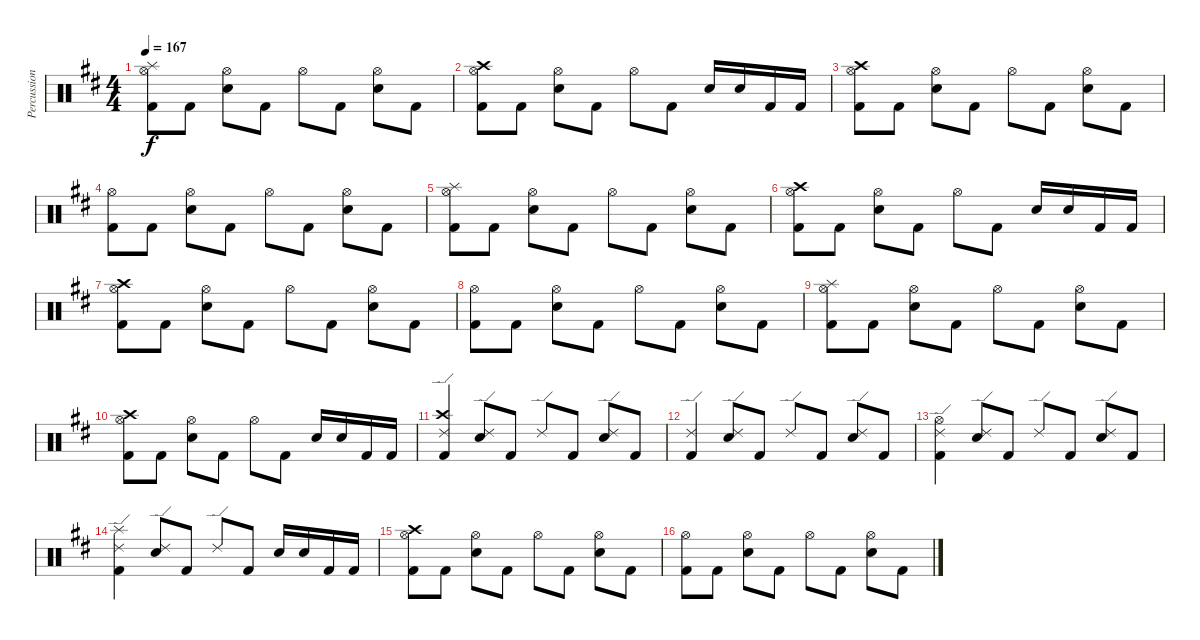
\track ("Percussion" "Percussion") {instrument percussion}
\staff {score}
\articulation defaults
\ts (4 4)
\tempo 167
\clef neutral
\ks d
("Hi-Hat (open)" "Splash (hit)" "Kick (hit) 2").8{dy f} "Kick (hit) 2".8 ("Hi-Hat (open)" "Electric Snare (hit)").8 "Kick (hit) 2".8 "Hi-Hat (open)".8 "Kick (hit) 2".8 ("Hi-Hat (open)" "Electric Snare (hit)").8 "Kick (hit) 2".8 |
("Hi-Hat (open)" "Crash high (hit)" "Kick (hit) 2").8 "Kick (hit) 2".8 ("Hi-Hat (open)" "Electric Snare (hit)").8 "Kick (hit) 2".8 "Hi-Hat (open)".8 "Kick (hit) 2".8 "Electric Snare (hit)".16 "Electric Snare (hit)".16 "Kick (hit) 2".16 "Kick (hit) 2".16 |
("Hi-Hat (open)" "Crash high (hit)" "Kick (hit) 2").8 "Kick (hit) 2".8 ("Hi-Hat (open)" "Electric Snare (hit)").8 "Kick (hit) 2".8 "Hi-Hat (open)".8 "Kick (hit) 2".8 ("Hi-Hat (open)" "Electric Snare (hit)").8 "Kick (hit) 2".8 |
("Hi-Hat (open)" "Kick (hit) 2").8 "Kick (hit) 2".8 ("Hi-Hat (open)" "Electric Snare (hit)").8 "Kick (hit) 2".8 "Hi-Hat (open)".8 "Kick (hit) 2".8 ("Hi-Hat (open)" "Electric Snare (hit)").8 "Kick (hit) 2".8 |
("Hi-Hat (open)" "Splash (hit)" "Kick (hit) 2").8 "Kick (hit) 2".8 ("Hi-Hat (open)" "Electric Snare (hit)").8 "Kick (hit) 2".8 "Hi-Hat (open)".8 "Kick (hit) 2".8 ("Hi-Hat (open)" "Electric Snare (hit)").8 "Kick (hit) 2".8 |
("Hi-Hat (open)" "Crash high (hit)" "Kick (hit) 2").8 "Kick (hit) 2".8 ("Hi-Hat (open)" "Electric Snare (hit)").8 "Kick (hit) 2".8 "Hi-Hat (open)".8 "Kick (hit) 2".8 "Electric Snare (hit)".16 "Electric Snare (hit)".16 "Kick (hit) 2".16 "Kick (hit) 2".16 |
("Hi-Hat (open)" "Crash high (hit)" "Kick (hit) 2").8 "Kick (hit) 2".8 ("Hi-Hat (open)" "Electric Snare (hit)").8 "Kick (hit) 2".8 "Hi-Hat (open)".8 "Kick (hit) 2".8 ("Hi-Hat (open)" "Electric Snare (hit)").8 "Kick (hit) 2".8 |
("Hi-Hat (open)" "Kick (hit) 2").8 "Kick (hit) 2".8 ("Hi-Hat (open)" "Electric Snare (hit)").8 "Kick (hit) 2".8 "Hi-Hat (open)".8 "Kick (hit) 2".8 ("Hi-Hat (open)" "Electric Snare (hit)").8 "Kick (hit) 2".8 |
("Hi-Hat (open)" "Splash (hit)" "Kick (hit) 2").8 "Kick (hit) 2".8 ("Hi-Hat (open)" "Electric Snare (hit)").8 "Kick (hit) 2".8 "Hi-Hat (open)".8 "Kick (hit) 2".8 ("Hi-Hat (open)" "Electric Snare (hit)").8 "Kick (hit) 2".8 |
("Hi-Hat (open)" "Crash high (hit)" "Kick (hit) 2").8 "Kick (hit) 2".8 ("Hi-Hat (open)" "Electric Snare (hit)").8 "Kick (hit) 2".8 "Hi-Hat (open)".8 "Kick (hit) 2".8 "Electric Snare (hit)".16 "Electric Snare (hit)".16 "Kick (hit) 2".16 "Kick (hit) 2".16 |
("Ride (edge) 2" "Crash high (hit)" "Kick (hit) 2").4 ("Ride (edge) 2" "Electric Snare (hit)").8 "Kick (hit) 2".8 "Ride (edge) 2".8 "Kick (hit) 2".8 ("Ride (edge) 2" "Electric Snare (hit)").8 "Kick (hit) 2".8 |
("Ride (edge) 2" "Kick (hit) 2").4 ("Ride (edge) 2" "Electric Snare (hit)").8 "Kick (hit) 2".8 "Ride (edge) 2".8 "Kick (hit) 2".8 ("Ride (edge) 2" "Electric Snare (hit)").8 "Kick (hit) 2".8 |
("Ride (edge) 2" "Hi-Hat (open)" "Kick (hit) 2").4 ("Ride (edge) 2" "Electric Snare (hit)").8 "Kick (hit) 2".8 "Ride (edge) 2".8 "Kick (hit) 2".8 ("Ride (edge) 2" "Electric Snare (hit)").8 "Kick (hit) 2".8 |
("Ride (edge) 2" "Splash (hit)" "Kick (hit) 2").4 ("Ride (edge) 2" "Electric Snare (hit)").8 "Kick (hit) 2".8 "Ride (edge) 2".8 "Kick (hit) 2".8 "Electric Snare (hit)".16 "Electric Snare (hit)".16 "Kick (hit) 2".16 "Kick (hit) 2".16 |
("Hi-Hat (open)" "Crash high (hit)" "Kick (hit) 2").8 "Kick (hit) 2".8 ("Hi-Hat (open)" "Electric Snare (hit)").8 "Kick (hit) 2".8 "Hi-Hat (open)".8 "Kick (hit) 2".8 ("Hi-Hat (open)" "Electric Snare (hit)").8 "Kick (hit) 2".8 |
("Hi-Hat (open)" "Kick (hit) 2").8 "Kick (hit) 2".8 ("Hi-Hat (open)" "Electric Snare (hit)").8 "Kick (hit) 2".8 "Hi-Hat (open)".8 "Kick (hit) 2".8 ("Hi-Hat (open)" "Electric Snare (hit)").8 "Kick (hit) 2".8
